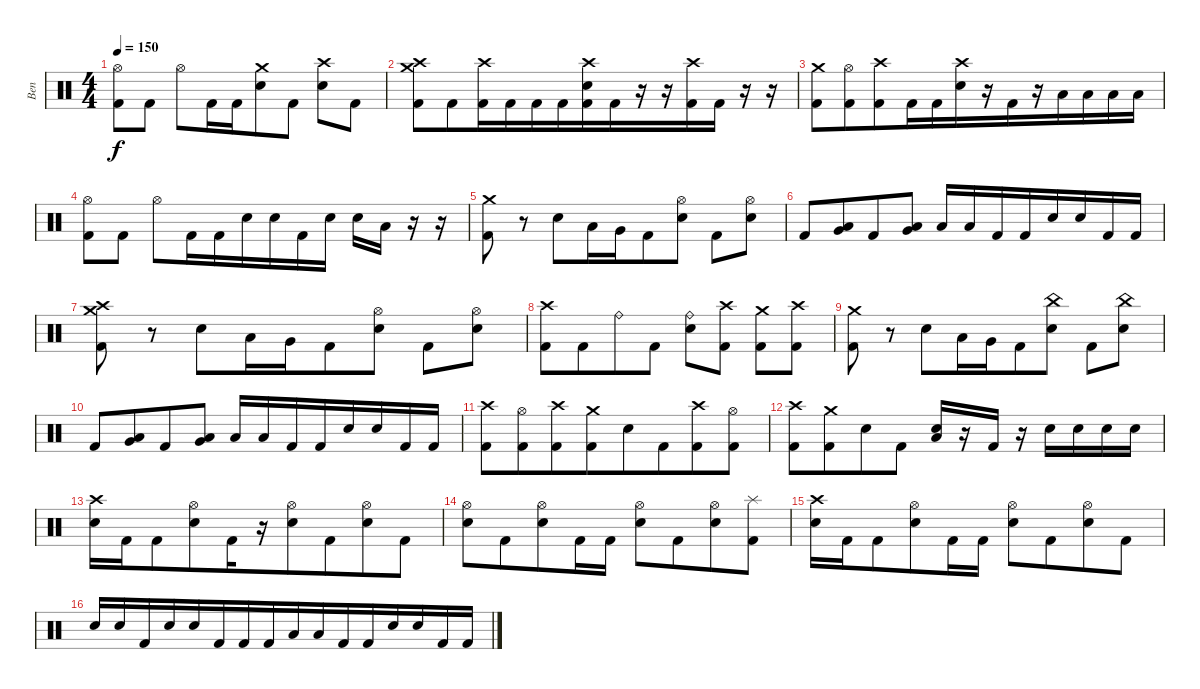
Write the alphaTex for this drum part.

\track ("Ben" "Ben") {instrument percussion}
\staff {score}
\articulation defaults
\ts (4 4)
\tempo 150
\clef neutral
\ks c
("Hi-Hat (open)" "Kick (hit) 2").8{dy f} "Kick (hit) 2".8 "Hi-Hat (open)".8{beam merge} "Kick (hit) 2".16 "Kick (hit) 2".16{beam merge} ("Crash medium (hit)" "Electric Snare (hit)").8 "Kick (hit) 2".8 ("Electric Snare (hit)" "Crash high (hit)").8{beam merge} "Kick (hit) 2".8 |
("Crash high (hit)" "Crash medium (hit)" "Kick (hit) 2").8 "Kick (hit) 2".8{beam merge} ("Crash high (hit)" "Kick (hit) 2").16{beam merge} "Kick (hit) 2".16{beam merge} "Kick (hit) 2".16{beam merge} "Kick (hit) 2".16{beam merge} ("Crash high (hit)" "Kick (hit) 2" "Electric Snare (hit)").16 "Kick (hit) 2".16{beam merge} r.16 r.16{beam merge} ("Crash high (hit)" "Kick (hit) 2").16{beam merge} "Kick (hit) 2".16{beam merge} r.16 r.16 |
("Kick (hit) 2" "Crash medium (hit)").8{beam merge} ("Kick (hit) 2" "Hi-Hat (open)").8{beam merge} ("Kick (hit) 2" "Crash high (hit)").8{beam merge} "Kick (hit) 2".16 "Kick (hit) 2".16{beam merge} ("Electric Snare (hit)" "Crash high (hit)").16 r.16{beam merge} "Kick (hit) 2".16{beam merge} r.16{beam merge} "Low Tom (hit)".16 "Low Tom (hit)".16{beam merge} "Low Floor Tom (hit)".16{beam merge} "Low Floor Tom (hit)".16 |
("Hi-Hat (open)" "Kick (hit) 2").8 "Kick (hit) 2".8 "Hi-Hat (open)".8{beam merge} "Kick (hit) 2".16 "Kick (hit) 2".16{beam merge} "Electric Snare (hit)".16 "Electric Snare (hit)".16 "Kick (hit) 2".16{beam merge} "Electric Snare (hit)".16 "Electric Snare (hit)".16 "Low Tom (hit)".16{beam merge} r.16{beam merge} r.16 |
("Crash medium (hit)" "Kick (hit) 2").8 r.8 "Electric Snare (hit)".8 "Low Tom (hit)".16 "Very Low Tom (hit)".16{beam merge} "Kick (hit) 2".8 ("Electric Snare (hit)" "Hi-Hat (open)").8 "Kick (hit) 2".8{beam merge} ("Electric Snare (hit)" "Hi-Hat (open)").8 |
"Kick (hit) 2".8 ("Low Floor Tom (hit)" "Very Low Tom (hit)").8{beam merge} "Kick (hit) 2".8{beam merge} ("Very Low Tom (hit)" "Low Floor Tom (hit)").8 "Low Tom (hit)".16{beam merge} "Low Tom (hit)".16{beam merge} "Kick (hit) 2".16 "Kick (hit) 2".16{beam merge} "Electric Snare (hit)".16{beam merge} "Electric Snare (hit)".16 "Kick (hit) 2".16{beam merge} "Kick (hit) 2".16 |
("Crash medium (hit)" "Crash high (hit)" "Kick (hit) 2").8 r.8 "Electric Snare (hit)".8 "Low Tom (hit)".16 "Very Low Tom (hit)".16{beam merge} "Kick (hit) 2".8 ("Electric Snare (hit)" "Hi-Hat (open)").8 "Kick (hit) 2".8{beam merge} ("Electric Snare (hit)" "Hi-Hat (open)").8 |
("Crash high (hit)" "Kick (hit) 2").8 "Kick (hit) 2".8{beam merge} "Ride (bell)".8 "Kick (hit) 2".8 ("Ride (bell)" "Electric Snare (hit)").8{beam merge} ("Crash high (hit)" "Kick (hit) 2").8 ("Crash medium (hit)" "Kick (hit) 2").8 ("Crash high (hit)" "Kick (hit) 2").8 |
("Crash medium (hit)" "Kick (hit) 2").8 r.8 "Electric Snare (hit)".8 "Low Tom (hit)".16 "Very Low Tom (hit)".16{beam merge} "Kick (hit) 2".8 ("Electric Snare (hit)" "China (hit)").8 "Kick (hit) 2".8{beam merge} ("Electric Snare (hit)" "China (hit)").8 |
"Kick (hit) 2".8 ("Low Floor Tom (hit)" "Very Low Tom (hit)").8{beam merge} "Kick (hit) 2".8{beam merge} ("Very Low Tom (hit)" "Low Floor Tom (hit)").8 "Low Tom (hit)".16{beam merge} "Low Tom (hit)".16{beam merge} "Kick (hit) 2".16 "Kick (hit) 2".16{beam merge} "Electric Snare (hit)".16{beam merge} "Electric Snare (hit)".16 "Kick (hit) 2".16{beam merge} "Kick (hit) 2".16 |
("Crash high (hit)" "Kick (hit) 2").8 ("Hi-Hat (open)" "Kick (hit) 2").8{beam merge} ("Crash high (hit)" "Kick (hit) 2").8{beam merge} ("Crash medium (hit)" "Kick (hit) 2").8{beam merge} "Electric Snare (hit)".8{beam merge} "Kick (hit) 2".8{beam merge} ("Crash high (hit)" "Kick (hit) 2").8 ("Hi-Hat (open)" "Kick (hit) 2").8 |
("Crash high (hit)" "Kick (hit) 2").8{beam merge} ("Crash medium (hit)" "Kick (hit) 2").8{beam merge} "Electric Snare (hit)".8{beam merge} "Kick (hit) 2".8 ("Low Floor Tom (hit)" "Electric Snare (hit)").16{beam merge} r.16{beam merge} "Kick (hit) 2".16 r.16{beam merge} "Electric Snare (hit)".16{beam merge} "Electric Snare (hit)".16 "Electric Snare (hit)".16{beam merge} "Electric Snare (hit)".16 |
("Crash high (hit)" "Electric Snare (hit)").16 "Kick (hit) 2".16{beam merge} "Kick (hit) 2".8{beam merge} ("Hi-Hat (open)" "Electric Snare (hit)").8{beam merge} "Kick (hit) 2".16{beam merge} r.16 ("Hi-Hat (open)" "Electric Snare (hit)").8{beam merge} "Kick (hit) 2".8{beam merge} ("Hi-Hat (open)" "Electric Snare (hit)").8{beam merge} "Kick (hit) 2".8 |
("Hi-Hat (open)" "Electric Snare (hit)").8{beam merge} "Kick (hit) 2".8{beam merge} ("Hi-Hat (open)" "Electric Snare (hit)").8{beam merge} "Kick (hit) 2".16{beam merge} "Kick (hit) 2".16 ("Hi-Hat (open)" "Electric Snare (hit)").8{beam merge} "Kick (hit) 2".8{beam merge} ("Hi-Hat (open)" "Electric Snare (hit)").8{beam merge} ("Splash (hit)" "Kick (hit) 2").8 |
("Crash high (hit)" "Electric Snare (hit)").16 "Kick (hit) 2".16{beam merge} "Kick (hit) 2".8{beam merge} ("Hi-Hat (open)" "Electric Snare (hit)").8{beam merge} "Kick (hit) 2".16{beam merge} "Kick (hit) 2".16 ("Hi-Hat (open)" "Electric Snare (hit)").8{beam merge} "Kick (hit) 2".8{beam merge} ("Hi-Hat (open)" "Electric Snare (hit)").8{beam merge} "Kick (hit) 2".8 |
"Electric Snare (hit)".16{beam merge} "Electric Snare (hit)".16{beam merge} "Kick (hit) 2".16 "Electric Snare (hit)".16{beam merge} "Electric Snare (hit)".16{beam merge} "Kick (hit) 2".16{beam merge} "Kick (hit) 2".16 "Kick (hit) 2".16{beam merge} "Low Tom (hit)".16{beam merge} "Low Tom (hit)".16{beam merge} "Kick (hit) 2".16 "Kick (hit) 2".16{beam merge} "Electric Snare (hit)".16{beam merge} "Electric Snare (hit)".16 "Kick (hit) 2".16{beam merge} "Kick (hit) 2".16
